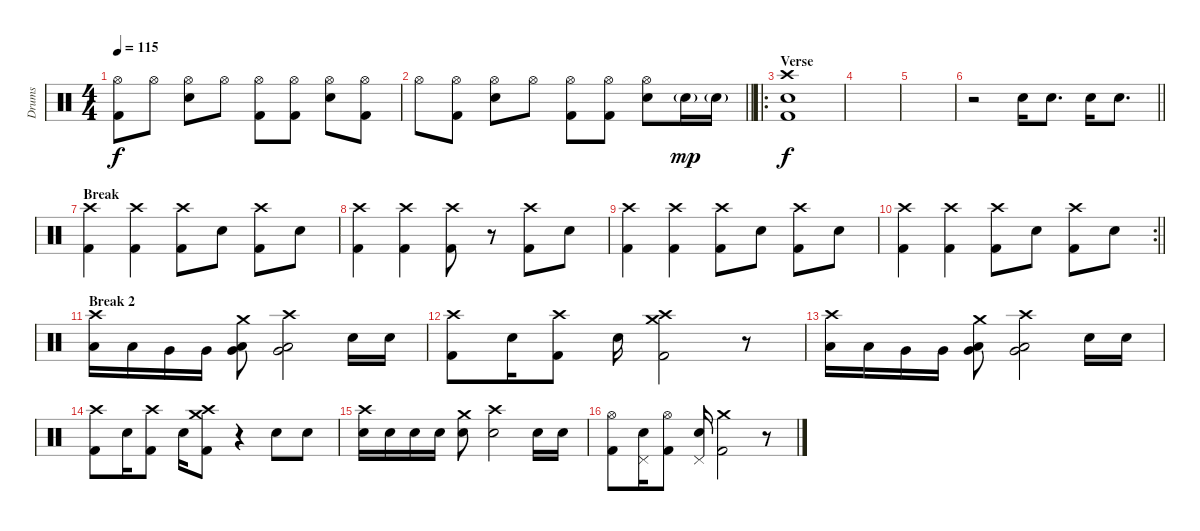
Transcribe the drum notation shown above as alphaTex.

\track ("Drums" "Drums") {instrument percussion}
\staff {score}
\articulation defaults
\ts (4 4)
\tempo 115
\clef neutral
\ks c
("Hi-Hat (open)" "Kick (hit) 2").8{dy f} "Hi-Hat (open)".8 ("Hi-Hat (open)" "Electric Snare (hit)").8 "Hi-Hat (open)".8 ("Hi-Hat (open)" "Kick (hit) 2").8 ("Hi-Hat (open)" "Kick (hit) 2").8 ("Hi-Hat (open)" "Electric Snare (hit)").8 ("Hi-Hat (open)" "Kick (hit) 2").8 |
\barLineRight lightlight "Hi-Hat (open)".8
("Hi-Hat (open)" "Kick (hit) 2").8 ("Hi-Hat (open)" "Electric Snare (hit)").8 "Hi-Hat (open)".8 ("Hi-Hat (open)" "Kick (hit) 2").8 ("Hi-Hat (open)" "Kick (hit) 2").8 ("Hi-Hat (open)" "Electric Snare (hit)").8 "Electric Snare (hit)"{g}.16{dy mp} "Electric Snare (hit)"{g}.16 |
\ro
\section ("" "Verse")
("Crash high (hit)" "Electric Snare (hit)" "Kick (hit) 2").1{dy f} |
|
|
\barLineRight lightlight
r.2 "Electric Snare (hit)".16 "Electric Snare (hit)".8{d} "Electric Snare (hit)".16 "Electric Snare (hit)".8{d} |
\section ("" "Break")
("Crash high (hit)" "Kick (hit) 2").4 ("Crash high (hit)" "Kick (hit) 2").4 ("Crash high (hit)" "Kick (hit) 2").8 "Electric Snare (hit)".8 ("Crash high (hit)" "Kick (hit) 2").8 "Electric Snare (hit)".8 |
("Crash high (hit)" "Kick (hit) 2").4 ("Crash high (hit)" "Kick (hit) 2").4 ("Crash high (hit)" "Kick (hit) 2").8 r.8 ("Crash high (hit)" "Kick (hit) 2").8 "Electric Snare (hit)".8 |
("Crash high (hit)" "Kick (hit) 2").4 ("Crash high (hit)" "Kick (hit) 2").4 ("Crash high (hit)" "Kick (hit) 2").8 "Electric Snare (hit)".8 ("Crash high (hit)" "Kick (hit) 2").8 "Electric Snare (hit)".8 |
\rc 2
\barLineRight lightlight
("Crash high (hit)" "Kick (hit) 2").4 ("Crash high (hit)" "Kick (hit) 2").4 ("Crash high (hit)" "Kick (hit) 2").8 "Electric Snare (hit)".8 ("Crash high (hit)" "Kick (hit) 2").8 "Electric Snare (hit)".8 |
\section ("" "Break 2")
("Crash high (hit)" "Low Tom (hit)").16 "Low Tom (hit)".16 "Very Low Tom (hit)".16 "Very Low Tom (hit)".16 ("Crash medium (hit)" "Low Tom (hit)" "Very Low Tom (hit)").8 ("Crash high (hit)" "Low Tom (hit)" "Very Low Tom (hit)").2 "Electric Snare (hit)".16 "Electric Snare (hit)".16 |
("Crash high (hit)" "Kick (hit) 2").8 "Electric Snare (hit)".16 ("Crash high (hit)" "Kick (hit) 2").8 "Electric Snare (hit)".16 ("Crash high (hit)" "Crash medium (hit)" "Kick (hit) 2").2 r.8 |
("Crash high (hit)" "Low Tom (hit)").16 "Low Tom (hit)".16 "Very Low Tom (hit)".16 "Very Low Tom (hit)".16 ("Crash medium (hit)" "Low Tom (hit)" "Very Low Tom (hit)").8 ("Crash high (hit)" "Low Tom (hit)" "Very Low Tom (hit)").2 "Electric Snare (hit)".16 "Electric Snare (hit)".16 |
("Crash high (hit)" "Kick (hit) 2").8 "Electric Snare (hit)".16 ("Crash high (hit)" "Kick (hit) 2").8 "Electric Snare (hit)".16 ("Crash high (hit)" "Crash medium (hit)" "Kick (hit) 2").8 r.4 "Electric Snare (hit)".8 "Electric Snare (hit)".8 |
("Crash high (hit)" "Electric Snare (hit)").16 "Electric Snare (hit)".16 "Electric Snare (hit)".16 "Electric Snare (hit)".16 ("Crash medium (hit)" "Electric Snare (hit)").8 ("Crash high (hit)" "Electric Snare (hit)").2 "Electric Snare (hit)".16 "Electric Snare (hit)".16 |
("Hi-Hat (open)" "Kick (hit) 2").8 ("Pedal Hi-Hat (hit)" "Electric Snare (hit)").16 ("Hi-Hat (open)" "Kick (hit) 2").8 ("Pedal Hi-Hat (hit)" "Electric Snare (hit)").16 ("Crash medium (hit)" "Kick (hit) 2").2 r.8
